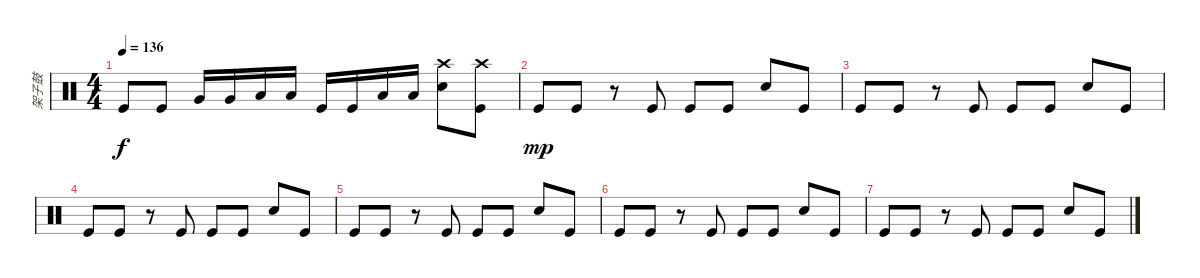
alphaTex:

\track ("架子鼓" "架子鼓") {instrument percussion}
\staff {score}
\articulation defaults
\ts (4 4)
\tempo 136
\clef neutral
\ks c "Kick (hit)".8{dy f} "Kick (hit)".8 "Very Low Tom (hit)".16 "Very Low Tom (hit)".16 "Low Floor Tom (hit)".16 "Low Floor Tom (hit)".16 "Kick (hit)".16 "Kick (hit)".16 "Low Floor Tom (hit)".16 "Low Floor Tom (hit)".16
("Crash high (hit)" "Snare (hit) 2").8 ("Crash high (hit)" "Kick (hit)").8 |
"Kick (hit)".8{dy mp} "Kick (hit)".8 r.8 "Kick (hit)".8 "Kick (hit)".8 "Kick (hit)".8 "Snare (hit) 2".8 "Kick (hit)".8 |
"Kick (hit)".8 "Kick (hit)".8 r.8 "Kick (hit)".8 "Kick (hit)".8 "Kick (hit)".8 "Snare (hit) 2".8 "Kick (hit)".8 |
"Kick (hit)".8 "Kick (hit)".8 r.8 "Kick (hit)".8 "Kick (hit)".8 "Kick (hit)".8 "Snare (hit) 2".8 "Kick (hit)".8 |
"Kick (hit)".8 "Kick (hit)".8 r.8 "Kick (hit)".8 "Kick (hit)".8 "Kick (hit)".8 "Snare (hit) 2".8 "Kick (hit)".8 |
"Kick (hit)".8 "Kick (hit)".8 r.8 "Kick (hit)".8 "Kick (hit)".8 "Kick (hit)".8 "Snare (hit) 2".8 "Kick (hit)".8 |
"Kick (hit)".8 "Kick (hit)".8 r.8 "Kick (hit)".8 "Kick (hit)".8 "Kick (hit)".8 "Snare (hit) 2".8 "Kick (hit)".8
